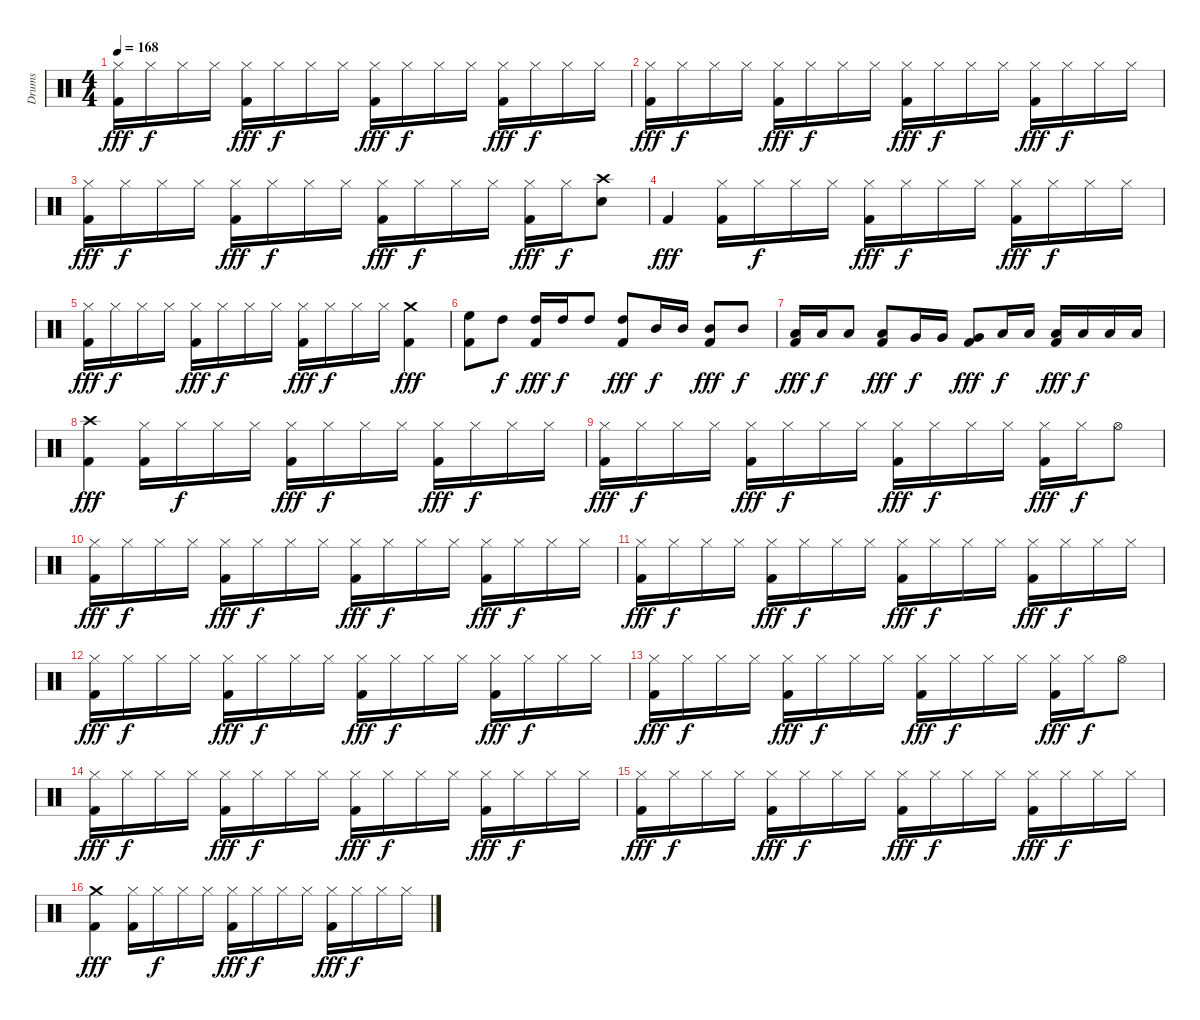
\track ("Drums" "Drums") {instrument percussion}
\staff {score}
\articulation defaults
\ts (4 4)
\tempo 168
\clef neutral
\ks c
("Hi-Hat (closed)" "Kick (hit) 2").16{dy fff} "Hi-Hat (closed)".16{dy f} "Hi-Hat (closed)".16 "Hi-Hat (closed)".16 ("Hi-Hat (closed)" "Kick (hit) 2").16{dy fff} "Hi-Hat (closed)".16{dy f} "Hi-Hat (closed)".16 "Hi-Hat (closed)".16 ("Hi-Hat (closed)" "Kick (hit) 2").16{dy fff} "Hi-Hat (closed)".16{dy f} "Hi-Hat (closed)".16 "Hi-Hat (closed)".16 ("Hi-Hat (closed)" "Kick (hit) 2").16{dy fff} "Hi-Hat (closed)".16{dy f} "Hi-Hat (closed)".16 "Hi-Hat (closed)".16 |
("Hi-Hat (closed)" "Kick (hit) 2").16{dy fff} "Hi-Hat (closed)".16{dy f} "Hi-Hat (closed)".16 "Hi-Hat (closed)".16 ("Hi-Hat (closed)" "Kick (hit) 2").16{dy fff} "Hi-Hat (closed)".16{dy f} "Hi-Hat (closed)".16 "Hi-Hat (closed)".16 ("Hi-Hat (closed)" "Kick (hit) 2").16{dy fff} "Hi-Hat (closed)".16{dy f} "Hi-Hat (closed)".16 "Hi-Hat (closed)".16 ("Hi-Hat (closed)" "Kick (hit) 2").16{dy fff} "Hi-Hat (closed)".16{dy f} "Hi-Hat (closed)".16 "Hi-Hat (closed)".16 |
("Hi-Hat (closed)" "Kick (hit) 2").16{dy fff} "Hi-Hat (closed)".16{dy f} "Hi-Hat (closed)".16 "Hi-Hat (closed)".16 ("Hi-Hat (closed)" "Kick (hit) 2").16{dy fff} "Hi-Hat (closed)".16{dy f} "Hi-Hat (closed)".16 "Hi-Hat (closed)".16 ("Hi-Hat (closed)" "Kick (hit) 2").16{dy fff} "Hi-Hat (closed)".16{dy f} "Hi-Hat (closed)".16 "Hi-Hat (closed)".16 ("Hi-Hat (closed)" "Kick (hit) 2").16{dy fff} "Hi-Hat (closed)".16{dy f} ("Crash high (hit)" "Electric Snare (hit)").8 |
"Kick (hit) 2".4{dy fff} ("Hi-Hat (closed)" "Kick (hit) 2").16 "Hi-Hat (closed)".16{dy f} "Hi-Hat (closed)".16 "Hi-Hat (closed)".16 ("Hi-Hat (closed)" "Kick (hit) 2").16{dy fff} "Hi-Hat (closed)".16{dy f} "Hi-Hat (closed)".16 "Hi-Hat (closed)".16 ("Hi-Hat (closed)" "Kick (hit) 2").16{dy fff} "Hi-Hat (closed)".16{dy f} "Hi-Hat (closed)".16 "Hi-Hat (closed)".16 |
("Hi-Hat (closed)" "Kick (hit) 2").16{dy fff} "Hi-Hat (closed)".16{dy f} "Hi-Hat (closed)".16 "Hi-Hat (closed)".16 ("Hi-Hat (closed)" "Kick (hit) 2").16{dy fff} "Hi-Hat (closed)".16{dy f} "Hi-Hat (closed)".16 "Hi-Hat (closed)".16 ("Hi-Hat (closed)" "Kick (hit) 2").16{dy fff} "Hi-Hat (closed)".16{dy f} "Hi-Hat (closed)".16 "Hi-Hat (closed)".16 ("Crash medium (hit)" "Kick (hit) 2").4{dy fff} |
("High Floor Tom (hit)" "Kick (hit) 2").8 "High Tom (hit)".8{dy f} ("High Tom (hit)" "Kick (hit) 2").16{dy fff} "High Tom (hit)".16{dy f} "High Tom (hit)".8 ("High Tom (hit)" "Kick (hit) 2").8{dy fff} "Mid Tom (hit)".16{dy f} "Mid Tom (hit)".16 ("Mid Tom (hit)" "Kick (hit) 2").8{dy fff} "Mid Tom (hit)".8{dy f} |
("Low Tom (hit)" "Kick (hit) 2").16{dy fff} "Low Tom (hit)".16{dy f} "Low Tom (hit)".8 ("Low Tom (hit)" "Kick (hit) 2").8{dy fff} "Very Low Tom (hit)".16{dy f} "Very Low Tom (hit)".16 ("Very Low Tom (hit)" "Kick (hit) 2").8{dy fff} "Low Floor Tom (hit)".16{dy f} "Low Floor Tom (hit)".16 ("Low Floor Tom (hit)" "Kick (hit) 2").16{dy fff} "Low Floor Tom (hit)".16{dy f} "Low Floor Tom (hit)".16 "Low Floor Tom (hit)".16 |
("Crash high (hit)" "Kick (hit) 2").4{dy fff} ("Hi-Hat (closed)" "Kick (hit) 2").16 "Hi-Hat (closed)".16{dy f} "Hi-Hat (closed)".16 "Hi-Hat (closed)".16 ("Hi-Hat (closed)" "Kick (hit) 2").16{dy fff} "Hi-Hat (closed)".16{dy f} "Hi-Hat (closed)".16 "Hi-Hat (closed)".16 ("Hi-Hat (closed)" "Kick (hit) 2").16{dy fff} "Hi-Hat (closed)".16{dy f} "Hi-Hat (closed)".16 "Hi-Hat (closed)".16 |
("Hi-Hat (closed)" "Kick (hit) 2").16{dy fff} "Hi-Hat (closed)".16{dy f} "Hi-Hat (closed)".16 "Hi-Hat (closed)".16 ("Hi-Hat (closed)" "Kick (hit) 2").16{dy fff} "Hi-Hat (closed)".16{dy f} "Hi-Hat (closed)".16 "Hi-Hat (closed)".16 ("Hi-Hat (closed)" "Kick (hit) 2").16{dy fff} "Hi-Hat (closed)".16{dy f} "Hi-Hat (closed)".16 "Hi-Hat (closed)".16 ("Hi-Hat (closed)" "Kick (hit) 2").16{dy fff} "Hi-Hat (closed)".16{dy f} "Hi-Hat (open)".8 |
("Hi-Hat (closed)" "Kick (hit) 2").16{dy fff} "Hi-Hat (closed)".16{dy f} "Hi-Hat (closed)".16 "Hi-Hat (closed)".16 ("Hi-Hat (closed)" "Kick (hit) 2").16{dy fff} "Hi-Hat (closed)".16{dy f} "Hi-Hat (closed)".16 "Hi-Hat (closed)".16 ("Hi-Hat (closed)" "Kick (hit) 2").16{dy fff} "Hi-Hat (closed)".16{dy f} "Hi-Hat (closed)".16 "Hi-Hat (closed)".16 ("Hi-Hat (closed)" "Kick (hit) 2").16{dy fff} "Hi-Hat (closed)".16{dy f} "Hi-Hat (closed)".16 "Hi-Hat (closed)".16 |
("Hi-Hat (closed)" "Kick (hit) 2").16{dy fff} "Hi-Hat (closed)".16{dy f} "Hi-Hat (closed)".16 "Hi-Hat (closed)".16 ("Hi-Hat (closed)" "Kick (hit) 2").16{dy fff} "Hi-Hat (closed)".16{dy f} "Hi-Hat (closed)".16 "Hi-Hat (closed)".16 ("Hi-Hat (closed)" "Kick (hit) 2").16{dy fff} "Hi-Hat (closed)".16{dy f} "Hi-Hat (closed)".16 "Hi-Hat (closed)".16 ("Hi-Hat (closed)" "Kick (hit) 2").16{dy fff} "Hi-Hat (closed)".16{dy f} "Hi-Hat (closed)".16 "Hi-Hat (closed)".16 |
("Hi-Hat (closed)" "Kick (hit) 2").16{dy fff} "Hi-Hat (closed)".16{dy f} "Hi-Hat (closed)".16 "Hi-Hat (closed)".16 ("Hi-Hat (closed)" "Kick (hit) 2").16{dy fff} "Hi-Hat (closed)".16{dy f} "Hi-Hat (closed)".16 "Hi-Hat (closed)".16 ("Hi-Hat (closed)" "Kick (hit) 2").16{dy fff} "Hi-Hat (closed)".16{dy f} "Hi-Hat (closed)".16 "Hi-Hat (closed)".16 ("Hi-Hat (closed)" "Kick (hit) 2").16{dy fff} "Hi-Hat (closed)".16{dy f} "Hi-Hat (closed)".16 "Hi-Hat (closed)".16 |
("Hi-Hat (closed)" "Kick (hit) 2").16{dy fff} "Hi-Hat (closed)".16{dy f} "Hi-Hat (closed)".16 "Hi-Hat (closed)".16 ("Hi-Hat (closed)" "Kick (hit) 2").16{dy fff} "Hi-Hat (closed)".16{dy f} "Hi-Hat (closed)".16 "Hi-Hat (closed)".16 ("Hi-Hat (closed)" "Kick (hit) 2").16{dy fff} "Hi-Hat (closed)".16{dy f} "Hi-Hat (closed)".16 "Hi-Hat (closed)".16 ("Hi-Hat (closed)" "Kick (hit) 2").16{dy fff} "Hi-Hat (closed)".16{dy f} "Hi-Hat (open)".8 |
("Hi-Hat (closed)" "Kick (hit) 2").16{dy fff} "Hi-Hat (closed)".16{dy f} "Hi-Hat (closed)".16 "Hi-Hat (closed)".16 ("Hi-Hat (closed)" "Kick (hit) 2").16{dy fff} "Hi-Hat (closed)".16{dy f} "Hi-Hat (closed)".16 "Hi-Hat (closed)".16 ("Hi-Hat (closed)" "Kick (hit) 2").16{dy fff} "Hi-Hat (closed)".16{dy f} "Hi-Hat (closed)".16 "Hi-Hat (closed)".16 ("Hi-Hat (closed)" "Kick (hit) 2").16{dy fff} "Hi-Hat (closed)".16{dy f} "Hi-Hat (closed)".16 "Hi-Hat (closed)".16 |
("Hi-Hat (closed)" "Kick (hit) 2").16{dy fff} "Hi-Hat (closed)".16{dy f} "Hi-Hat (closed)".16 "Hi-Hat (closed)".16 ("Hi-Hat (closed)" "Kick (hit) 2").16{dy fff} "Hi-Hat (closed)".16{dy f} "Hi-Hat (closed)".16 "Hi-Hat (closed)".16 ("Hi-Hat (closed)" "Kick (hit) 2").16{dy fff} "Hi-Hat (closed)".16{dy f} "Hi-Hat (closed)".16 "Hi-Hat (closed)".16 ("Hi-Hat (closed)" "Kick (hit) 2").16{dy fff} "Hi-Hat (closed)".16{dy f} "Hi-Hat (closed)".16 "Hi-Hat (closed)".16 |
("Crash medium (hit)" "Kick (hit) 2").4{dy fff} ("Hi-Hat (closed)" "Kick (hit) 2").16 "Hi-Hat (closed)".16{dy f} "Hi-Hat (closed)".16 "Hi-Hat (closed)".16 ("Hi-Hat (closed)" "Kick (hit) 2").16{dy fff} "Hi-Hat (closed)".16{dy f} "Hi-Hat (closed)".16 "Hi-Hat (closed)".16 ("Hi-Hat (closed)" "Kick (hit) 2").16{dy fff} "Hi-Hat (closed)".16{dy f} "Hi-Hat (closed)".16 "Hi-Hat (closed)".16
